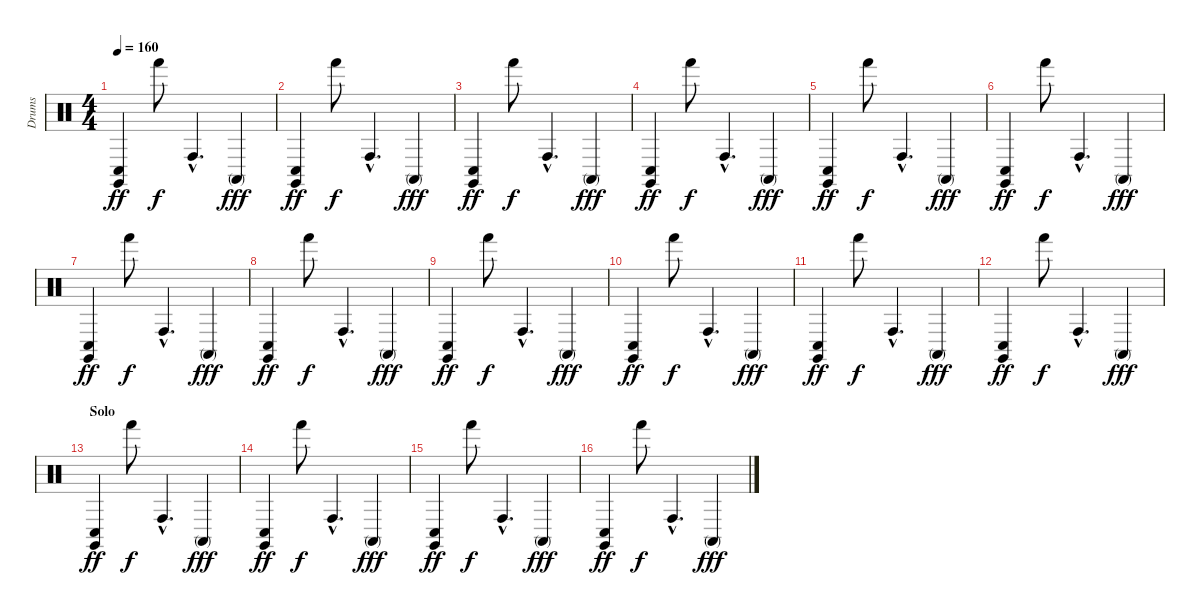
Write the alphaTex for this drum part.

\track ("Drums" "Drums") {instrument percussion}
\staff {score}
\articulation defaults
\ts (4 4)
\tempo 160
\clef neutral
\ks c
("Claves (hit)" "Conga low (hit)").4{dy ff} "Hand (hit)".8{dy f} "Conga high (hit)"{hac}.4{d} "Conga high (mute)".4{dy fff} |
("Claves (hit)" "Conga low (hit)").4{dy ff} "Hand (hit)".8{dy f} "Conga high (hit)"{hac}.4{d} "Conga high (mute)".4{dy fff} |
("Claves (hit)" "Conga low (hit)").4{dy ff} "Hand (hit)".8{dy f} "Conga high (hit)"{hac}.4{d} "Conga high (mute)".4{dy fff} |
("Claves (hit)" "Conga low (hit)").4{dy ff} "Hand (hit)".8{dy f} "Conga high (hit)"{hac}.4{d} "Conga high (mute)".4{dy fff} |
("Claves (hit)" "Conga low (hit)").4{dy ff} "Hand (hit)".8{dy f} "Conga high (hit)"{hac}.4{d} "Conga high (mute)".4{dy fff} |
("Claves (hit)" "Conga low (hit)").4{dy ff} "Hand (hit)".8{dy f} "Conga high (hit)"{hac}.4{d} "Conga high (mute)".4{dy fff} |
("Claves (hit)" "Conga low (hit)").4{dy ff} "Hand (hit)".8{dy f} "Conga high (hit)"{hac}.4{d} "Conga high (mute)".4{dy fff} |
("Claves (hit)" "Conga low (hit)").4{dy ff} "Hand (hit)".8{dy f} "Conga high (hit)"{hac}.4{d} "Conga high (mute)".4{dy fff} |
("Claves (hit)" "Conga low (hit)").4{dy ff} "Hand (hit)".8{dy f} "Conga high (hit)"{hac}.4{d} "Conga high (mute)".4{dy fff} |
("Claves (hit)" "Conga low (hit)").4{dy ff} "Hand (hit)".8{dy f} "Conga high (hit)"{hac}.4{d} "Conga high (mute)".4{dy fff} |
("Claves (hit)" "Conga low (hit)").4{dy ff} "Hand (hit)".8{dy f} "Conga high (hit)"{hac}.4{d} "Conga high (mute)".4{dy fff} |
("Claves (hit)" "Conga low (hit)").4{dy ff} "Hand (hit)".8{dy f} "Conga high (hit)"{hac}.4{d} "Conga high (mute)".4{dy fff} |
\section ("" "Solo")
("Claves (hit)" "Conga low (hit)").4{dy ff} "Hand (hit)".8{dy f} "Conga high (hit)"{hac}.4{d} "Conga high (mute)".4{dy fff} |
("Claves (hit)" "Conga low (hit)").4{dy ff} "Hand (hit)".8{dy f} "Conga high (hit)"{hac}.4{d} "Conga high (mute)".4{dy fff} |
("Claves (hit)" "Conga low (hit)").4{dy ff} "Hand (hit)".8{dy f} "Conga high (hit)"{hac}.4{d} "Conga high (mute)".4{dy fff} |
("Claves (hit)" "Conga low (hit)").4{dy ff} "Hand (hit)".8{dy f} "Conga high (hit)"{hac}.4{d} "Conga high (mute)".4{dy fff}
